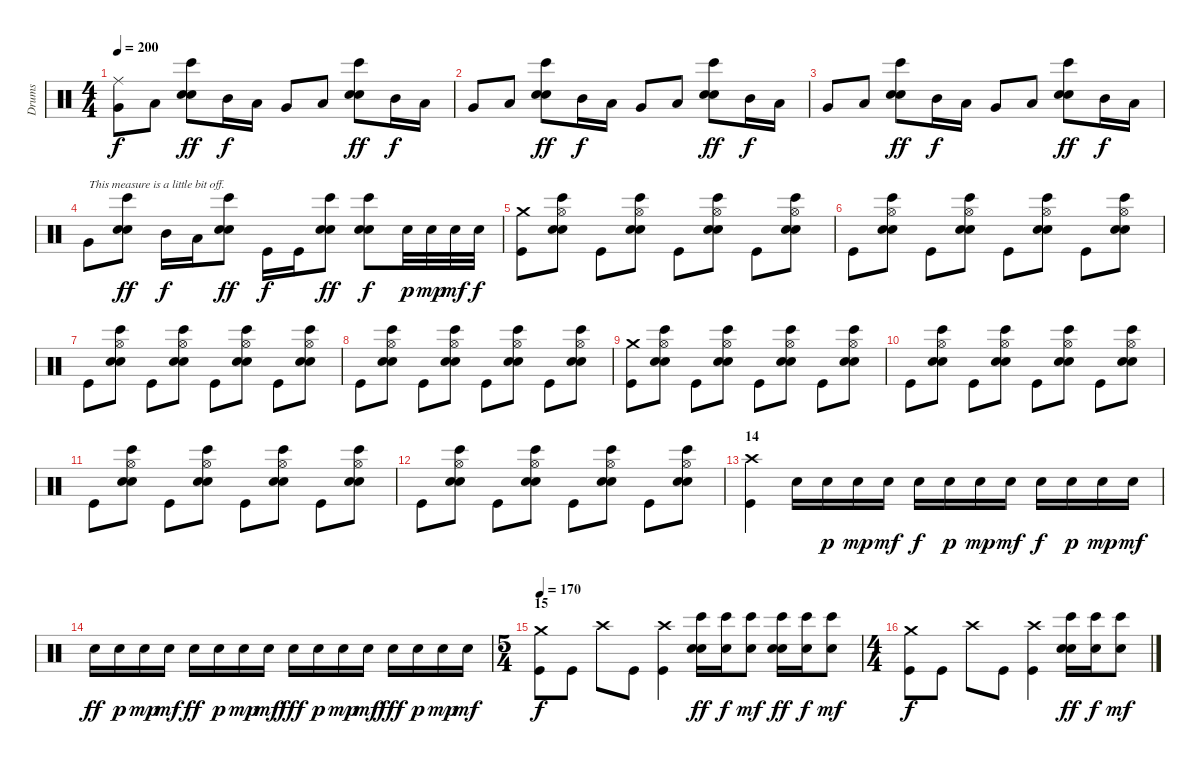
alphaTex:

\track ("Drums" "Drums") {instrument percussion}
\staff {score}
\articulation defaults
\ts (4 4)
\tempo 200
\clef neutral
\ks c
("Very Low Tom (hit)" "Ride (middle)").8{dy f} "Low Floor Tom (hit)".8 ("Electric Snare (hit)" "Electric Snare (hit)" "Bongo High (hit)").8{dy ff} "Mid Tom (hit)".16{dy f} "Low Tom (hit)".16 "Very Low Tom (hit)".8 "Low Floor Tom (hit)".8 ("Electric Snare (hit)" "Electric Snare (hit)" "Bongo High (hit)").8{dy ff} "Mid Tom (hit)".16{dy f} "Low Tom (hit)".16 |
"Very Low Tom (hit)".8 "Low Floor Tom (hit)".8 ("Electric Snare (hit)" "Electric Snare (hit)" "Bongo High (hit)").8{dy ff} "Mid Tom (hit)".16{dy f} "Low Tom (hit)".16 "Very Low Tom (hit)".8 "Low Floor Tom (hit)".8 ("Electric Snare (hit)" "Electric Snare (hit)" "Bongo High (hit)").8{dy ff} "Mid Tom (hit)".16{dy f} "Low Tom (hit)".16 |
"Very Low Tom (hit)".8 "Low Floor Tom (hit)".8 ("Electric Snare (hit)" "Electric Snare (hit)" "Bongo High (hit)").8{dy ff} "Mid Tom (hit)".16{dy f} "Low Tom (hit)".16 "Very Low Tom (hit)".8 "Low Floor Tom (hit)".8 ("Electric Snare (hit)" "Electric Snare (hit)" "Bongo High (hit)").8{dy ff} "Mid Tom (hit)".16{dy f} "Low Tom (hit)".16 |
"Very Low Tom (hit)".8{txt "This measure is a little bit off."} ("Electric Snare (hit)" "Electric Snare (hit)" "Bongo High (hit)").8{dy ff} "Mid Tom (hit)".16{dy f} "Low Tom (hit)".16 ("Electric Snare (hit)" "Electric Snare (hit)" "Bongo High (hit)").8{dy ff} "Kick (hit)".16{dy f} "Kick (hit)".16 ("Electric Snare (hit)" "Electric Snare (hit)" "Bongo High (hit)").8{dy ff} ("Electric Snare (hit)" "Electric Snare (hit)" "Bongo High (hit)").8{dy f} "Electric Snare (hit)".32{dy p} "Electric Snare (hit)".32{dy mp} "Electric Snare (hit)".32{dy mf} "Electric Snare (hit)".32{dy f} |
("Kick (hit)" "Crash medium (hit)").8 ("Electric Snare (hit)" "Electric Snare (hit)" "Bongo High (hit)" "Hi-Hat (open)").8 "Kick (hit)".8 ("Electric Snare (hit)" "Electric Snare (hit)" "Bongo High (hit)" "Hi-Hat (open)").8 "Kick (hit)".8 ("Electric Snare (hit)" "Electric Snare (hit)" "Bongo High (hit)" "Hi-Hat (open)").8 "Kick (hit)".8 ("Electric Snare (hit)" "Electric Snare (hit)" "Bongo High (hit)" "Hi-Hat (open)").8 |
"Kick (hit)".8 ("Electric Snare (hit)" "Electric Snare (hit)" "Bongo High (hit)" "Hi-Hat (open)").8 "Kick (hit)".8 ("Electric Snare (hit)" "Electric Snare (hit)" "Bongo High (hit)" "Hi-Hat (open)").8 "Kick (hit)".8 ("Electric Snare (hit)" "Electric Snare (hit)" "Bongo High (hit)" "Hi-Hat (open)").8 "Kick (hit)".8 ("Electric Snare (hit)" "Electric Snare (hit)" "Bongo High (hit)" "Hi-Hat (open)").8 |
"Kick (hit)".8 ("Electric Snare (hit)" "Electric Snare (hit)" "Bongo High (hit)" "Hi-Hat (open)").8 "Kick (hit)".8 ("Electric Snare (hit)" "Electric Snare (hit)" "Bongo High (hit)" "Hi-Hat (open)").8 "Kick (hit)".8 ("Electric Snare (hit)" "Electric Snare (hit)" "Bongo High (hit)" "Hi-Hat (open)").8 "Kick (hit)".8 ("Electric Snare (hit)" "Electric Snare (hit)" "Bongo High (hit)" "Hi-Hat (open)").8 |
"Kick (hit)".8 ("Electric Snare (hit)" "Electric Snare (hit)" "Bongo High (hit)" "Hi-Hat (open)").8 "Kick (hit)".8 ("Electric Snare (hit)" "Electric Snare (hit)" "Bongo High (hit)" "Hi-Hat (open)").8 "Kick (hit)".8 ("Electric Snare (hit)" "Electric Snare (hit)" "Bongo High (hit)" "Hi-Hat (open)").8 "Kick (hit)".8 ("Electric Snare (hit)" "Electric Snare (hit)" "Bongo High (hit)" "Hi-Hat (open)").8 |
("Kick (hit)" "Crash medium (hit)").8 ("Electric Snare (hit)" "Electric Snare (hit)" "Bongo High (hit)" "Hi-Hat (open)").8 "Kick (hit)".8 ("Electric Snare (hit)" "Electric Snare (hit)" "Bongo High (hit)" "Hi-Hat (open)").8 "Kick (hit)".8 ("Electric Snare (hit)" "Electric Snare (hit)" "Bongo High (hit)" "Hi-Hat (open)").8 "Kick (hit)".8 ("Electric Snare (hit)" "Electric Snare (hit)" "Bongo High (hit)" "Hi-Hat (open)").8 |
"Kick (hit)".8 ("Electric Snare (hit)" "Electric Snare (hit)" "Bongo High (hit)" "Hi-Hat (open)").8 "Kick (hit)".8 ("Electric Snare (hit)" "Electric Snare (hit)" "Bongo High (hit)" "Hi-Hat (open)").8 "Kick (hit)".8 ("Electric Snare (hit)" "Electric Snare (hit)" "Bongo High (hit)" "Hi-Hat (open)").8 "Kick (hit)".8 ("Electric Snare (hit)" "Electric Snare (hit)" "Bongo High (hit)" "Hi-Hat (open)").8 |
"Kick (hit)".8 ("Electric Snare (hit)" "Electric Snare (hit)" "Bongo High (hit)" "Hi-Hat (open)").8 "Kick (hit)".8 ("Electric Snare (hit)" "Electric Snare (hit)" "Bongo High (hit)" "Hi-Hat (open)").8 "Kick (hit)".8 ("Electric Snare (hit)" "Electric Snare (hit)" "Bongo High (hit)" "Hi-Hat (open)").8 "Kick (hit)".8 ("Electric Snare (hit)" "Electric Snare (hit)" "Bongo High (hit)" "Hi-Hat (open)").8 |
"Kick (hit)".8 ("Electric Snare (hit)" "Electric Snare (hit)" "Bongo High (hit)" "Hi-Hat (open)").8 "Kick (hit)".8 ("Electric Snare (hit)" "Electric Snare (hit)" "Bongo High (hit)" "Hi-Hat (open)").8 "Kick (hit)".8 ("Electric Snare (hit)" "Electric Snare (hit)" "Bongo High (hit)" "Hi-Hat (open)").8 "Kick (hit)".8 ("Electric Snare (hit)" "Electric Snare (hit)" "Bongo High (hit)" "Hi-Hat (open)").8 |
\section ("" "14")
("Kick (hit)" "Crash high (hit)").4 "Electric Snare (hit)".16 "Electric Snare (hit)".16{dy p} "Electric Snare (hit)".16{dy mp} "Electric Snare (hit)".16{dy mf} "Electric Snare (hit)".16{dy f} "Electric Snare (hit)".16{dy p} "Electric Snare (hit)".16{dy mp} "Electric Snare (hit)".16{dy mf} "Electric Snare (hit)".16{dy f} "Electric Snare (hit)".16{dy p} "Electric Snare (hit)".16{dy mp} "Electric Snare (hit)".16{dy mf} |
"Electric Snare (hit)".16{dy ff} "Electric Snare (hit)".16{dy p} "Electric Snare (hit)".16{dy mp} "Electric Snare (hit)".16{dy mf} "Electric Snare (hit)".16{dy ff} "Electric Snare (hit)".16{dy p} "Electric Snare (hit)".16{dy mp} "Electric Snare (hit)".16{dy mf} "Electric Snare (hit)".16{dy fff} "Electric Snare (hit)".16{dy p} "Electric Snare (hit)".16{dy mp} "Electric Snare (hit)".16{dy mf} "Electric Snare (hit)".16{dy fff} "Electric Snare (hit)".16{dy p} "Electric Snare (hit)".16{dy mp} "Electric Snare (hit)".16{dy mf} |
\ts (5 4)
\section ("" "15")
\tempo 170
("Kick (hit)" "Crash medium (hit)").8{dy f} "Kick (hit)".8 "Crash high (hit)".8 "Kick (hit)".8 ("Kick (hit)" "Crash high (hit)").4 ("Electric Snare (hit)" "Electric Snare (hit)" "Bongo High (hit)").16{dy ff} ("Electric Snare (hit)" "Bongo High (hit)").16{dy f} ("Electric Snare (hit)" "Bongo High (hit)").8{dy mf} ("Electric Snare (hit)" "Electric Snare (hit)" "Bongo High (hit)").16{dy ff} ("Electric Snare (hit)" "Bongo High (hit)").16{dy f} ("Electric Snare (hit)" "Bongo High (hit)").8{dy mf} |
\ts (4 4)
("Kick (hit)" "Crash medium (hit)").8{dy f} "Kick (hit)".8 "Crash high (hit)".8 "Kick (hit)".8 ("Kick (hit)" "Crash high (hit)").4 ("Electric Snare (hit)" "Electric Snare (hit)" "Bongo High (hit)").16{dy ff} ("Electric Snare (hit)" "Bongo High (hit)").16{dy f} ("Electric Snare (hit)" "Bongo High (hit)").8{dy mf}
